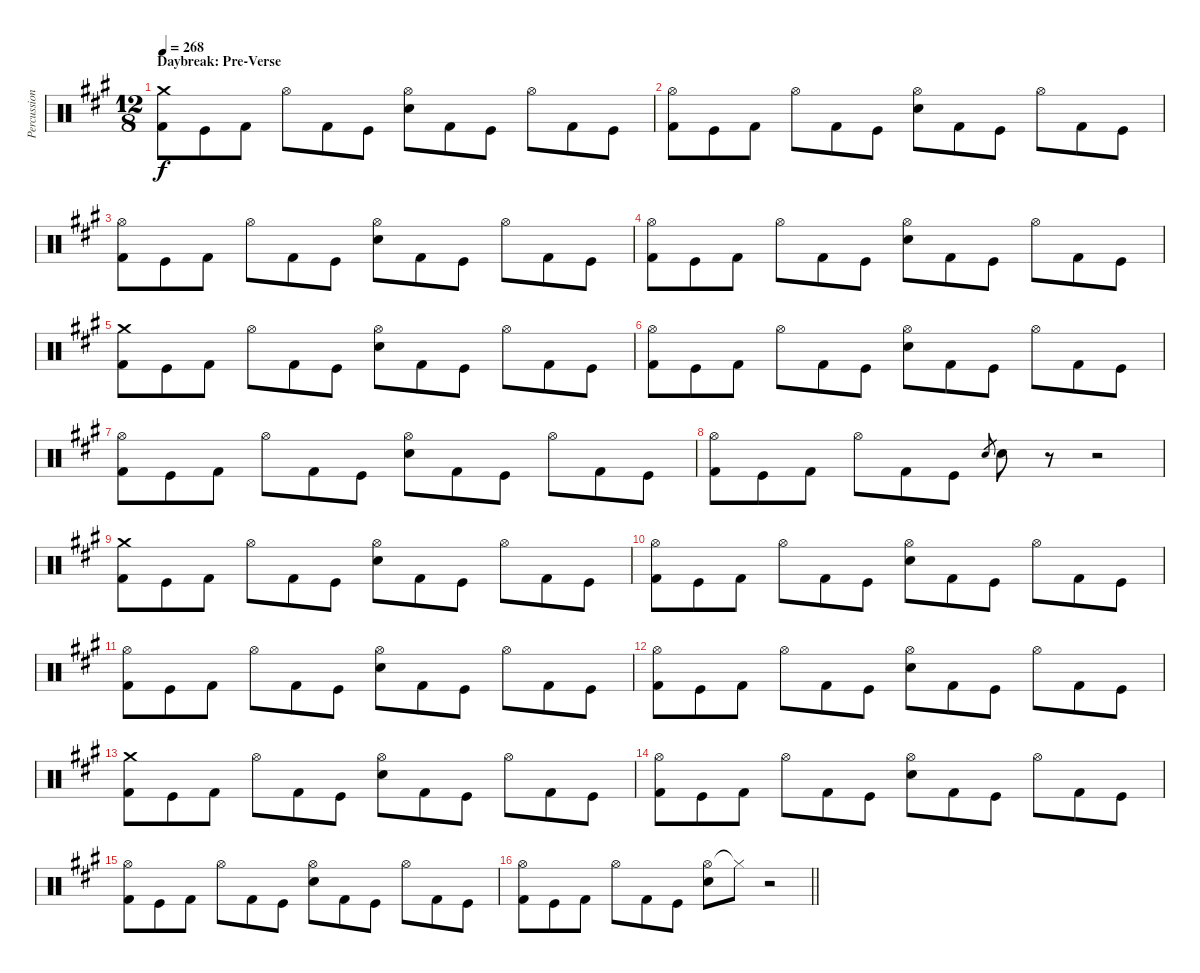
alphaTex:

\track ("Percussion" "Percussion") {instrument percussion}
\staff {score}
\articulation defaults
\ts (12 8)
\section ("" "Daybreak: Pre-Verse")
\tempo 268
\clef neutral
\ks a
("Crash medium (hit)" "Kick (hit) 2").8{dy f} "Kick (hit)".8 "Kick (hit) 2".8 "Hi-Hat (open)".8 "Kick (hit) 2".8 "Kick (hit)".8 ("Hi-Hat (open)" "Electric Snare (hit)").8 "Kick (hit) 2".8 "Kick (hit)".8 "Hi-Hat (open)".8 "Kick (hit) 2".8 "Kick (hit)".8 |
("Hi-Hat (open)" "Kick (hit) 2").8 "Kick (hit)".8 "Kick (hit) 2".8 "Hi-Hat (open)".8 "Kick (hit) 2".8 "Kick (hit)".8 ("Hi-Hat (open)" "Electric Snare (hit)").8 "Kick (hit) 2".8 "Kick (hit)".8 "Hi-Hat (open)".8 "Kick (hit) 2".8 "Kick (hit)".8 |
("Hi-Hat (open)" "Kick (hit) 2").8 "Kick (hit)".8 "Kick (hit) 2".8 "Hi-Hat (open)".8 "Kick (hit) 2".8 "Kick (hit)".8 ("Hi-Hat (open)" "Electric Snare (hit)").8 "Kick (hit) 2".8 "Kick (hit)".8 "Hi-Hat (open)".8 "Kick (hit) 2".8 "Kick (hit)".8 |
("Hi-Hat (open)" "Kick (hit) 2").8 "Kick (hit)".8 "Kick (hit) 2".8 "Hi-Hat (open)".8 "Kick (hit) 2".8 "Kick (hit)".8 ("Hi-Hat (open)" "Electric Snare (hit)").8 "Kick (hit) 2".8 "Kick (hit)".8 "Hi-Hat (open)".8 "Kick (hit) 2".8 "Kick (hit)".8 |
("Crash medium (hit)" "Kick (hit) 2").8 "Kick (hit)".8 "Kick (hit) 2".8 "Hi-Hat (open)".8 "Kick (hit) 2".8 "Kick (hit)".8 ("Hi-Hat (open)" "Electric Snare (hit)").8 "Kick (hit) 2".8 "Kick (hit)".8 "Hi-Hat (open)".8 "Kick (hit) 2".8 "Kick (hit)".8 |
("Hi-Hat (open)" "Kick (hit) 2").8 "Kick (hit)".8 "Kick (hit) 2".8 "Hi-Hat (open)".8 "Kick (hit) 2".8 "Kick (hit)".8 ("Hi-Hat (open)" "Electric Snare (hit)").8 "Kick (hit) 2".8 "Kick (hit)".8 "Hi-Hat (open)".8 "Kick (hit) 2".8 "Kick (hit)".8 |
("Hi-Hat (open)" "Kick (hit) 2").8 "Kick (hit)".8 "Kick (hit) 2".8 "Hi-Hat (open)".8 "Kick (hit) 2".8 "Kick (hit)".8 ("Hi-Hat (open)" "Electric Snare (hit)").8 "Kick (hit) 2".8 "Kick (hit)".8 "Hi-Hat (open)".8 "Kick (hit) 2".8 "Kick (hit)".8 |
("Hi-Hat (open)" "Kick (hit) 2").8 "Kick (hit)".8 "Kick (hit) 2".8 "Hi-Hat (open)".8 "Kick (hit) 2".8 "Kick (hit)".8 "Electric Snare (hit)".8{gr} "Electric Snare (hit)".8 r.8 r.2 |
("Crash medium (hit)" "Kick (hit) 2").8 "Kick (hit)".8 "Kick (hit) 2".8 "Hi-Hat (open)".8 "Kick (hit) 2".8 "Kick (hit)".8 ("Hi-Hat (open)" "Electric Snare (hit)").8 "Kick (hit) 2".8 "Kick (hit)".8 "Hi-Hat (open)".8 "Kick (hit) 2".8 "Kick (hit)".8 |
("Hi-Hat (open)" "Kick (hit) 2").8 "Kick (hit)".8 "Kick (hit) 2".8 "Hi-Hat (open)".8 "Kick (hit) 2".8 "Kick (hit)".8 ("Hi-Hat (open)" "Electric Snare (hit)").8 "Kick (hit) 2".8 "Kick (hit)".8 "Hi-Hat (open)".8 "Kick (hit) 2".8 "Kick (hit)".8 |
("Hi-Hat (open)" "Kick (hit) 2").8 "Kick (hit)".8 "Kick (hit) 2".8 "Hi-Hat (open)".8 "Kick (hit) 2".8 "Kick (hit)".8 ("Hi-Hat (open)" "Electric Snare (hit)").8 "Kick (hit) 2".8 "Kick (hit)".8 "Hi-Hat (open)".8 "Kick (hit) 2".8 "Kick (hit)".8 |
("Hi-Hat (open)" "Kick (hit) 2").8 "Kick (hit)".8 "Kick (hit) 2".8 "Hi-Hat (open)".8 "Kick (hit) 2".8 "Kick (hit)".8 ("Hi-Hat (open)" "Electric Snare (hit)").8 "Kick (hit) 2".8 "Kick (hit)".8 "Hi-Hat (open)".8 "Kick (hit) 2".8 "Kick (hit)".8 |
("Crash medium (hit)" "Kick (hit) 2").8 "Kick (hit)".8 "Kick (hit) 2".8 "Hi-Hat (open)".8 "Kick (hit) 2".8 "Kick (hit)".8 ("Hi-Hat (open)" "Electric Snare (hit)").8 "Kick (hit) 2".8 "Kick (hit)".8 "Hi-Hat (open)".8 "Kick (hit) 2".8 "Kick (hit)".8 |
("Hi-Hat (open)" "Kick (hit) 2").8 "Kick (hit)".8 "Kick (hit) 2".8 "Hi-Hat (open)".8 "Kick (hit) 2".8 "Kick (hit)".8 ("Hi-Hat (open)" "Electric Snare (hit)").8 "Kick (hit) 2".8 "Kick (hit)".8 "Hi-Hat (open)".8 "Kick (hit) 2".8 "Kick (hit)".8 |
("Hi-Hat (open)" "Kick (hit) 2").8 "Kick (hit)".8 "Kick (hit) 2".8 "Hi-Hat (open)".8 "Kick (hit) 2".8 "Kick (hit)".8 ("Hi-Hat (open)" "Electric Snare (hit)").8 "Kick (hit) 2".8 "Kick (hit)".8 "Hi-Hat (open)".8 "Kick (hit) 2".8 "Kick (hit)".8 |
\barLineRight lightlight
("Hi-Hat (open)" "Kick (hit) 2").8 "Kick (hit)".8 "Kick (hit) 2".8 "Hi-Hat (open)".8 "Kick (hit) 2".8 "Kick (hit)".8 ("Hi-Hat (open)" "Electric Snare (hit)").8 "Hi-Hat (closed)"{t}.8 r.2
